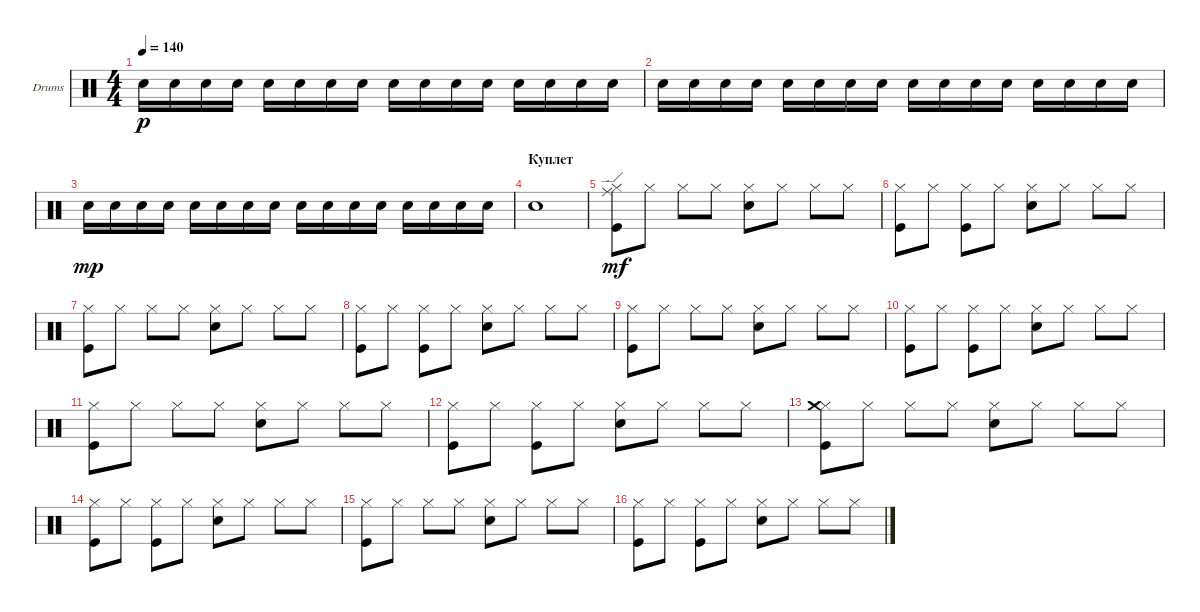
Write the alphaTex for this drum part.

\defaultSystemsLayout 4
\bracketExtendMode groupsimilarinstruments
\firstSystemTrackNameOrientation horizontal
\otherSystemsTrackNameOrientation horizontal
\track ("Ударные" "Drums") {instrument percussion}
\staff {score}
\articulation defaults
\ts (4 4)
\tempo 140
\clef neutral
\scale
0.333333
\ks c "Snare (hit) 2".16{dy p} "Snare (hit) 2".16 "Snare (hit) 2".16 "Snare (hit) 2".16 "Snare (hit) 2".16 "Snare (hit) 2".16 "Snare (hit) 2".16 "Snare (hit) 2".16 "Snare (hit) 2".16 "Snare (hit) 2".16 "Snare (hit) 2".16 "Snare (hit) 2".16 "Snare (hit) 2".16 "Snare (hit) 2".16 "Snare (hit) 2".16 "Snare (hit) 2".16
|
\scale
0.333333 "Snare (hit) 2".16 "Snare (hit) 2".16 "Snare (hit) 2".16 "Snare (hit) 2".16 "Snare (hit) 2".16 "Snare (hit) 2".16 "Snare (hit) 2".16 "Snare (hit) 2".16 "Snare (hit) 2".16 "Snare (hit) 2".16 "Snare (hit) 2".16 "Snare (hit) 2".16 "Snare (hit) 2".16 "Snare (hit) 2".16 "Snare (hit) 2".16 "Snare (hit) 2".16 |
\scale
0.333333 "Snare (hit) 2".16{dy mp} "Snare (hit) 2".16 "Snare (hit) 2".16 "Snare (hit) 2".16 "Snare (hit) 2".16 "Snare (hit) 2".16 "Snare (hit) 2".16 "Snare (hit) 2".16 "Snare (hit) 2".16 "Snare (hit) 2".16 "Snare (hit) 2".16 "Snare (hit) 2".16 "Snare (hit) 2".16 "Snare (hit) 2".16 "Snare (hit) 2".16 "Snare (hit) 2".16 |
\section ("" "Куплет")
\scale
0.333333 "Snare (hit) 2".1 |
\scale
0.333333 ("Ride (edge)" "Hi-Hat (closed)" "Kick (hit)").8{dy mf} "Hi-Hat (closed)".8 "Hi-Hat (closed)".8 "Hi-Hat (closed)".8 ("Hi-Hat (closed)" "Snare (hit) 2").8 "Hi-Hat (closed)".8 "Hi-Hat (closed)".8 "Hi-Hat (closed)".8 |
\scale
0.333333 ("Hi-Hat (closed)" "Kick (hit)").8 "Hi-Hat (closed)".8 ("Hi-Hat (closed)" "Kick (hit)").8 "Hi-Hat (closed)".8 ("Hi-Hat (closed)" "Snare (hit) 2").8 "Hi-Hat (closed)".8 "Hi-Hat (closed)".8 "Hi-Hat (closed)".8 |
\scale
0.333333 ("Hi-Hat (closed)" "Kick (hit)").8 "Hi-Hat (closed)".8 "Hi-Hat (closed)".8 "Hi-Hat (closed)".8 ("Hi-Hat (closed)" "Snare (hit) 2").8 "Hi-Hat (closed)".8 "Hi-Hat (closed)".8 "Hi-Hat (closed)".8 |
\scale
0.333333 ("Hi-Hat (closed)" "Kick (hit)").8 "Hi-Hat (closed)".8 ("Hi-Hat (closed)" "Kick (hit)").8 "Hi-Hat (closed)".8 ("Hi-Hat (closed)" "Snare (hit) 2").8 "Hi-Hat (closed)".8 "Hi-Hat (closed)".8 "Hi-Hat (closed)".8 |
\scale
0.333333 ("Hi-Hat (closed)" "Kick (hit)").8 "Hi-Hat (closed)".8 "Hi-Hat (closed)".8 "Hi-Hat (closed)".8 ("Hi-Hat (closed)" "Snare (hit) 2").8 "Hi-Hat (closed)".8 "Hi-Hat (closed)".8 "Hi-Hat (closed)".8 |
\scale
0.333333 ("Hi-Hat (closed)" "Kick (hit)").8 "Hi-Hat (closed)".8 ("Hi-Hat (closed)" "Kick (hit)").8 "Hi-Hat (closed)".8 ("Hi-Hat (closed)" "Snare (hit) 2").8 "Hi-Hat (closed)".8 "Hi-Hat (closed)".8 "Hi-Hat (closed)".8 |
\scale
0.333333 ("Hi-Hat (closed)" "Kick (hit)").8 "Hi-Hat (closed)".8 "Hi-Hat (closed)".8 "Hi-Hat (closed)".8 ("Hi-Hat (closed)" "Snare (hit) 2").8 "Hi-Hat (closed)".8 "Hi-Hat (closed)".8 "Hi-Hat (closed)".8 |
\scale
0.333333 ("Hi-Hat (closed)" "Kick (hit)").8 "Hi-Hat (closed)".8 ("Hi-Hat (closed)" "Kick (hit)").8 "Hi-Hat (closed)".8 ("Hi-Hat (closed)" "Snare (hit) 2").8 "Hi-Hat (closed)".8 "Hi-Hat (closed)".8 "Hi-Hat (closed)".8 |
\scale
0.333333 ("Kick (hit)" "Hi-Hat (closed)" "Crash medium (hit)").8 "Hi-Hat (closed)".8 "Hi-Hat (closed)".8 "Hi-Hat (closed)".8 ("Hi-Hat (closed)" "Snare (hit) 2").8 "Hi-Hat (closed)".8 "Hi-Hat (closed)".8 "Hi-Hat (closed)".8 |
\scale
0.333333 ("Hi-Hat (closed)" "Kick (hit)").8 "Hi-Hat (closed)".8 ("Hi-Hat (closed)" "Kick (hit)").8 "Hi-Hat (closed)".8 ("Hi-Hat (closed)" "Snare (hit) 2").8 "Hi-Hat (closed)".8 "Hi-Hat (closed)".8 "Hi-Hat (closed)".8 |
\scale
0.333333 ("Hi-Hat (closed)" "Kick (hit)").8 "Hi-Hat (closed)".8 "Hi-Hat (closed)".8 "Hi-Hat (closed)".8 ("Hi-Hat (closed)" "Snare (hit) 2").8 "Hi-Hat (closed)".8 "Hi-Hat (closed)".8 "Hi-Hat (closed)".8 |
\scale
0.333333 ("Hi-Hat (closed)" "Kick (hit)").8 "Hi-Hat (closed)".8 ("Hi-Hat (closed)" "Kick (hit)").8 "Hi-Hat (closed)".8 ("Hi-Hat (closed)" "Snare (hit) 2").8 "Hi-Hat (closed)".8 "Hi-Hat (closed)".8 "Hi-Hat (closed)".8
